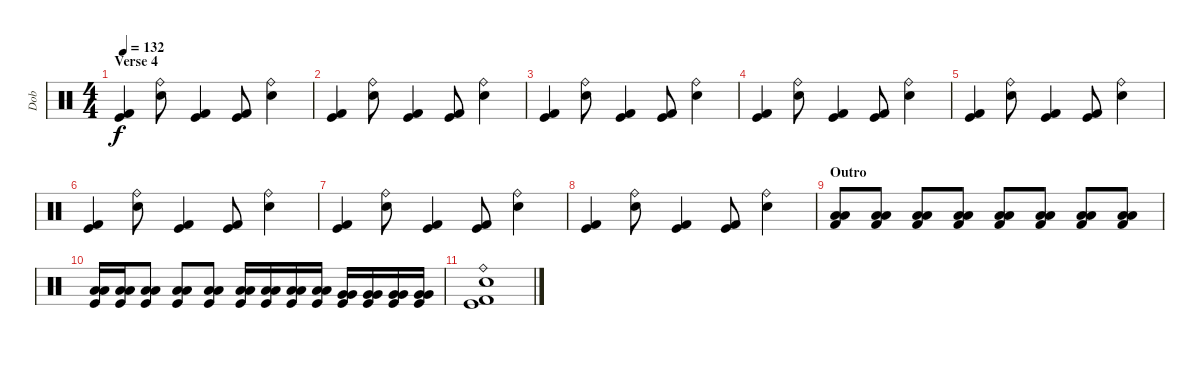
\track ("Dob" "Dob") {instrument percussion}
\staff {score}
\articulation defaults
\ts (4 4)
\section ("" "Verse 4")
\tempo 132
\clef neutral
\ks c
("Kick (hit)" "Kick (hit) 2").4{dy f} ("Snare (hit) 2" "Ride (bell)").8 ("Kick (hit)" "Kick (hit) 2").4 ("Kick (hit)" "Kick (hit) 2").8 ("Snare (hit) 2" "Ride (bell)").4 |
("Kick (hit)" "Kick (hit) 2").4 ("Snare (hit) 2" "Ride (bell)").8 ("Kick (hit)" "Kick (hit) 2").4 ("Kick (hit)" "Kick (hit) 2").8 ("Snare (hit) 2" "Ride (bell)").4 |
("Kick (hit)" "Kick (hit) 2").4 ("Snare (hit) 2" "Ride (bell)").8 ("Kick (hit)" "Kick (hit) 2").4 ("Kick (hit)" "Kick (hit) 2").8 ("Snare (hit) 2" "Ride (bell)").4 |
("Kick (hit)" "Kick (hit) 2").4 ("Snare (hit) 2" "Ride (bell)").8 ("Kick (hit)" "Kick (hit) 2").4 ("Kick (hit)" "Kick (hit) 2").8 ("Snare (hit) 2" "Ride (bell)").4 |
("Kick (hit)" "Kick (hit) 2").4 ("Snare (hit) 2" "Ride (bell)").8 ("Kick (hit)" "Kick (hit) 2").4 ("Kick (hit)" "Kick (hit) 2").8 ("Snare (hit) 2" "Ride (bell)").4 |
("Kick (hit)" "Kick (hit) 2").4 ("Snare (hit) 2" "Ride (bell)").8 ("Kick (hit)" "Kick (hit) 2").4 ("Kick (hit)" "Kick (hit) 2").8 ("Snare (hit) 2" "Ride (bell)").4 |
("Kick (hit)" "Kick (hit) 2").4 ("Snare (hit) 2" "Ride (bell)").8 ("Kick (hit)" "Kick (hit) 2").4 ("Kick (hit)" "Kick (hit) 2").8 ("Snare (hit) 2" "Ride (bell)").4 |
("Kick (hit)" "Kick (hit) 2").4 ("Snare (hit) 2" "Ride (bell)").8 ("Kick (hit)" "Kick (hit) 2").4 ("Kick (hit)" "Kick (hit) 2").8 ("Snare (hit) 2" "Ride (bell)").4 |
\section ("" "Outro")
("Kick (hit) 2" "Low Tom (hit)" "Low Tom (hit)").8 ("Kick (hit) 2" "Low Tom (hit)" "Low Tom (hit)").8 ("Kick (hit) 2" "Low Tom (hit)" "Low Tom (hit)").8 ("Kick (hit) 2" "Low Tom (hit)" "Low Tom (hit)").8 ("Kick (hit) 2" "Low Tom (hit)" "Low Tom (hit)").8 ("Kick (hit) 2" "Low Tom (hit)" "Low Tom (hit)").8 ("Kick (hit) 2" "Low Tom (hit)" "Low Tom (hit)").8 ("Kick (hit) 2" "Low Tom (hit)" "Low Tom (hit)").8 |
("Kick (hit)" "Low Tom (hit)" "Low Tom (hit)").16 ("Kick (hit)" "Low Tom (hit)" "Low Tom (hit)").16 ("Kick (hit)" "Low Tom (hit)" "Low Tom (hit)").8 ("Kick (hit)" "Low Tom (hit)" "Low Tom (hit)").8 ("Kick (hit)" "Low Tom (hit)" "Low Tom (hit)").8 ("Kick (hit)" "Low Tom (hit)" "Low Tom (hit)").16 ("Kick (hit)" "Low Tom (hit)" "Low Tom (hit)").16 ("Kick (hit)" "Low Tom (hit)" "Low Tom (hit)").16 ("Kick (hit)" "Low Tom (hit)" "Low Tom (hit)").16 ("Kick (hit)" "Very Low Tom (hit)" "Very Low Tom (hit)").16 ("Kick (hit)" "Very Low Tom (hit)" "Very Low Tom (hit)").16 ("Kick (hit)" "Very Low Tom (hit)" "Very Low Tom (hit)").16 ("Kick (hit)" "Very Low Tom (hit)" "Very Low Tom (hit)").16 |
("Snare (hit) 2" "Kick (hit)" "Kick (hit) 2" "Ride (bell)").1
